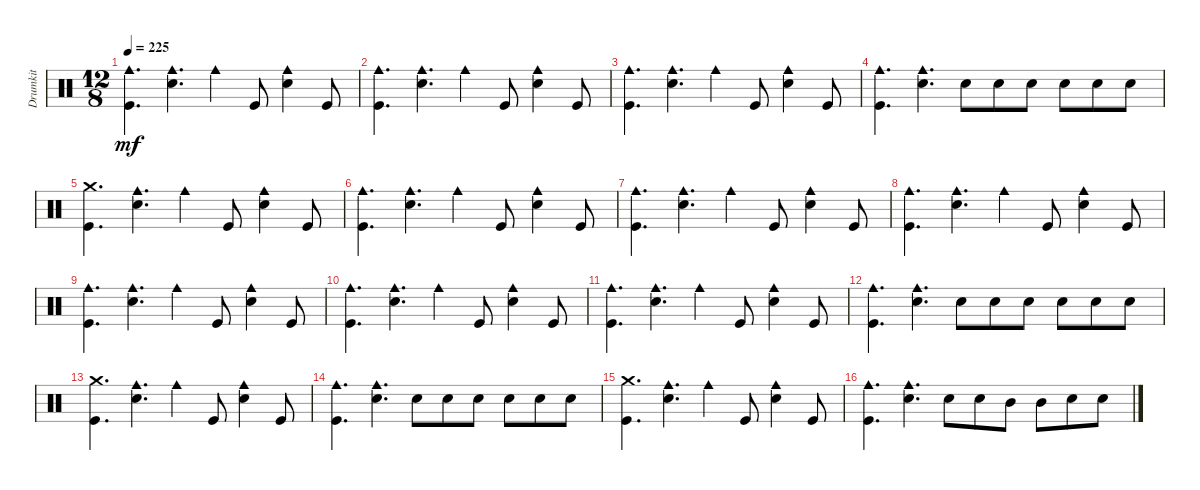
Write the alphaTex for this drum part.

\track ("Drumkit" "Drumkit") {instrument percussion}
\staff {score}
\articulation defaults
\ts (12 8)
\tempo 225
\clef neutral
\ks c
("Kick (hit)" "Cowbell medium (hit)").4{d dy mf} ("Snare (hit) 2" "Cowbell medium (hit)").4{d} "Cowbell medium (hit)".4 "Kick (hit)".8 ("Cowbell medium (hit)" "Snare (hit) 2").4 "Kick (hit)".8 |
("Cowbell medium (hit)" "Kick (hit)").4{d} ("Cowbell medium (hit)" "Snare (hit) 2").4{d} "Cowbell medium (hit)".4 "Kick (hit)".8 ("Cowbell medium (hit)" "Snare (hit) 2").4 "Kick (hit)".8 |
("Kick (hit)" "Cowbell medium (hit)").4{d} ("Snare (hit) 2" "Cowbell medium (hit)").4{d} "Cowbell medium (hit)".4 "Kick (hit)".8 ("Cowbell medium (hit)" "Snare (hit) 2").4 "Kick (hit)".8 |
("Cowbell medium (hit)" "Kick (hit)").4{d} ("Cowbell medium (hit)" "Snare (hit) 2").4{d} "Snare (hit) 2".8 "Snare (hit) 2".8 "Snare (hit) 2".8 "Snare (hit) 2".8 "Snare (hit) 2".8 "Snare (hit) 2".8 |
("Kick (hit)" "Crash medium (hit)").4{d} ("Snare (hit) 2" "Cowbell medium (hit)").4{d} "Cowbell medium (hit)".4 "Kick (hit)".8 ("Cowbell medium (hit)" "Snare (hit) 2").4 "Kick (hit)".8 |
("Cowbell medium (hit)" "Kick (hit)").4{d} ("Cowbell medium (hit)" "Snare (hit) 2").4{d} "Cowbell medium (hit)".4 "Kick (hit)".8 ("Cowbell medium (hit)" "Snare (hit) 2").4 "Kick (hit)".8 |
("Kick (hit)" "Cowbell medium (hit)").4{d} ("Snare (hit) 2" "Cowbell medium (hit)").4{d} "Cowbell medium (hit)".4 "Kick (hit)".8 ("Cowbell medium (hit)" "Snare (hit) 2").4 "Kick (hit)".8 |
("Cowbell medium (hit)" "Kick (hit)").4{d} ("Cowbell medium (hit)" "Snare (hit) 2").4{d} "Cowbell medium (hit)".4 "Kick (hit)".8 ("Cowbell medium (hit)" "Snare (hit) 2").4 "Kick (hit)".8 |
("Kick (hit)" "Cowbell medium (hit)").4{d} ("Snare (hit) 2" "Cowbell medium (hit)").4{d} "Cowbell medium (hit)".4 "Kick (hit)".8 ("Cowbell medium (hit)" "Snare (hit) 2").4 "Kick (hit)".8 |
("Cowbell medium (hit)" "Kick (hit)").4{d} ("Cowbell medium (hit)" "Snare (hit) 2").4{d} "Cowbell medium (hit)".4 "Kick (hit)".8 ("Cowbell medium (hit)" "Snare (hit) 2").4 "Kick (hit)".8 |
("Kick (hit)" "Cowbell medium (hit)").4{d} ("Snare (hit) 2" "Cowbell medium (hit)").4{d} "Cowbell medium (hit)".4 "Kick (hit)".8 ("Cowbell medium (hit)" "Snare (hit) 2").4 "Kick (hit)".8 |
("Cowbell medium (hit)" "Kick (hit)").4{d} ("Cowbell medium (hit)" "Snare (hit) 2").4{d} "Snare (hit) 2".8 "Snare (hit) 2".8 "Snare (hit) 2".8 "Snare (hit) 2".8 "Snare (hit) 2".8 "Snare (hit) 2".8 |
("Kick (hit)" "Crash medium (hit)").4{d} ("Snare (hit) 2" "Cowbell medium (hit)").4{d} "Cowbell medium (hit)".4 "Kick (hit)".8 ("Cowbell medium (hit)" "Snare (hit) 2").4 "Kick (hit)".8 |
("Cowbell medium (hit)" "Kick (hit)").4{d} ("Cowbell medium (hit)" "Snare (hit) 2").4{d} "Snare (hit) 2".8 "Snare (hit) 2".8 "Snare (hit) 2".8 "Snare (hit) 2".8 "Snare (hit) 2".8 "Snare (hit) 2".8 |
("Kick (hit)" "Crash medium (hit)").4{d} ("Snare (hit) 2" "Cowbell medium (hit)").4{d} "Cowbell medium (hit)".4 "Kick (hit)".8 ("Cowbell medium (hit)" "Snare (hit) 2").4 "Kick (hit)".8 |
("Cowbell medium (hit)" "Kick (hit)").4{d} ("Cowbell medium (hit)" "Snare (hit) 2").4{d} "Snare (hit) 2".8 "Snare (hit) 2".8 "Mid Tom (hit)".8 "Mid Tom (hit)".8 "Snare (hit) 2".8 "Snare (hit) 2".8
